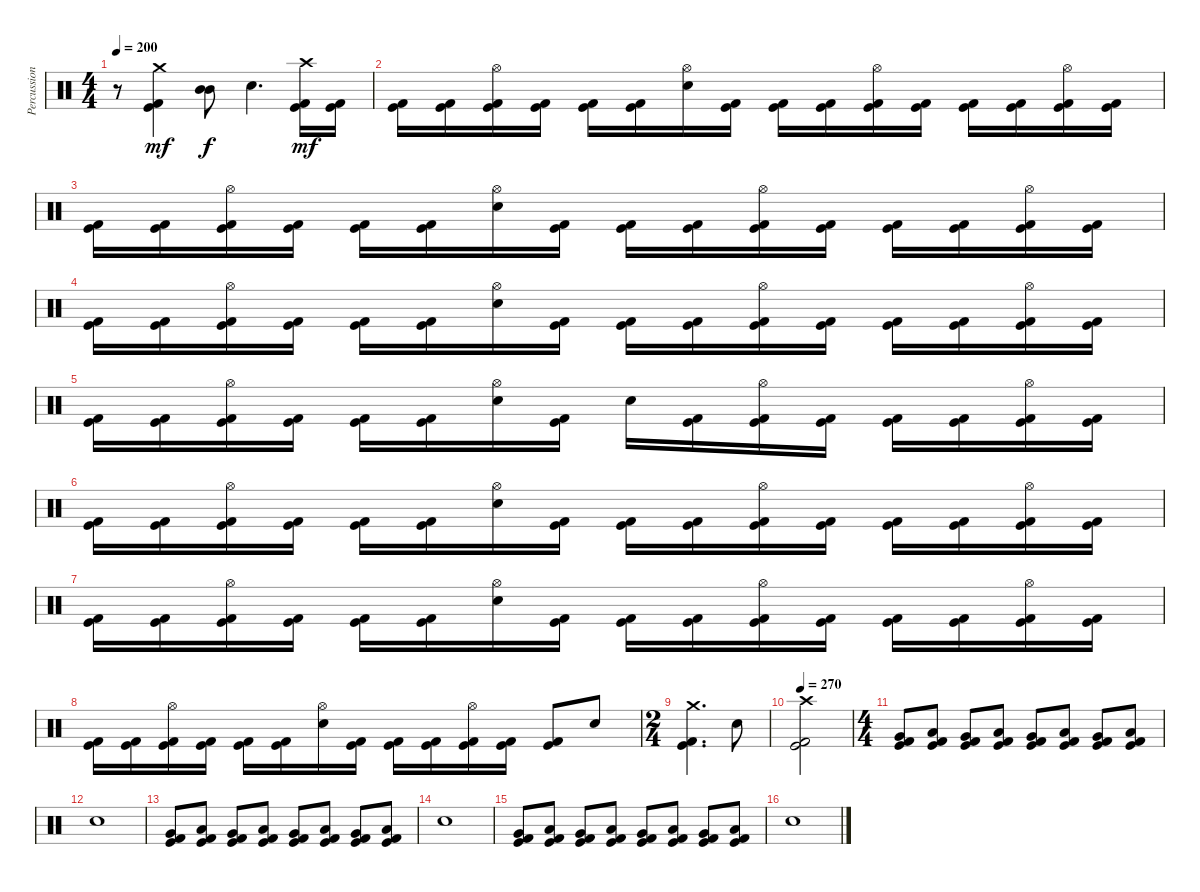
\track ("Percussions" "Percussion") {instrument percussion}
\staff {score}
\articulation defaults
\ts (4 4)
\tempo 200
\clef neutral
\ks c
r.8{dy mf} ("Crash medium (hit)" "Kick (hit)" "Kick (hit) 2").4 ("Mid Tom (hit)" "Mid Tom (hit)").8{dy f} "Electric Snare (hit)".4{d} ("Crash high (hit)" "Kick (hit)" "Kick (hit) 2").16{dy mf} ("Kick (hit)" "Kick (hit) 2").16 |
("Kick (hit)" "Kick (hit) 2").16 ("Kick (hit)" "Kick (hit) 2").16 ("Hi-Hat (open)" "Kick (hit)" "Kick (hit) 2").16 ("Kick (hit)" "Kick (hit) 2").16 ("Kick (hit)" "Kick (hit) 2").16 ("Kick (hit)" "Kick (hit) 2").16 ("Hi-Hat (open)" "Electric Snare (hit)").16 ("Kick (hit)" "Kick (hit) 2").16 ("Kick (hit)" "Kick (hit) 2").16 ("Kick (hit)" "Kick (hit) 2").16 ("Hi-Hat (open)" "Kick (hit)" "Kick (hit) 2").16 ("Kick (hit)" "Kick (hit) 2").16 ("Kick (hit)" "Kick (hit) 2").16 ("Kick (hit)" "Kick (hit) 2").16 ("Hi-Hat (open)" "Kick (hit)" "Kick (hit) 2").16 ("Kick (hit)" "Kick (hit) 2").16 |
("Kick (hit)" "Kick (hit) 2").16 ("Kick (hit)" "Kick (hit) 2").16 ("Hi-Hat (open)" "Kick (hit)" "Kick (hit) 2").16 ("Kick (hit)" "Kick (hit) 2").16 ("Kick (hit)" "Kick (hit) 2").16 ("Kick (hit)" "Kick (hit) 2").16 ("Hi-Hat (open)" "Electric Snare (hit)").16 ("Kick (hit)" "Kick (hit) 2").16 ("Kick (hit)" "Kick (hit) 2").16 ("Kick (hit)" "Kick (hit) 2").16 ("Hi-Hat (open)" "Kick (hit)" "Kick (hit) 2").16 ("Kick (hit)" "Kick (hit) 2").16 ("Kick (hit)" "Kick (hit) 2").16 ("Kick (hit)" "Kick (hit) 2").16 ("Hi-Hat (open)" "Kick (hit)" "Kick (hit) 2").16 ("Kick (hit)" "Kick (hit) 2").16 |
("Kick (hit)" "Kick (hit) 2").16 ("Kick (hit)" "Kick (hit) 2").16 ("Hi-Hat (open)" "Kick (hit)" "Kick (hit) 2").16 ("Kick (hit)" "Kick (hit) 2").16 ("Kick (hit)" "Kick (hit) 2").16 ("Kick (hit)" "Kick (hit) 2").16 ("Hi-Hat (open)" "Electric Snare (hit)").16 ("Kick (hit)" "Kick (hit) 2").16 ("Kick (hit)" "Kick (hit) 2").16 ("Kick (hit)" "Kick (hit) 2").16 ("Hi-Hat (open)" "Kick (hit)" "Kick (hit) 2").16 ("Kick (hit)" "Kick (hit) 2").16 ("Kick (hit)" "Kick (hit) 2").16 ("Kick (hit)" "Kick (hit) 2").16 ("Hi-Hat (open)" "Kick (hit)" "Kick (hit) 2").16 ("Kick (hit)" "Kick (hit) 2").16 |
("Kick (hit)" "Kick (hit) 2").16 ("Kick (hit)" "Kick (hit) 2").16 ("Hi-Hat (open)" "Kick (hit)" "Kick (hit) 2").16 ("Kick (hit)" "Kick (hit) 2").16 ("Kick (hit)" "Kick (hit) 2").16 ("Kick (hit)" "Kick (hit) 2").16 ("Hi-Hat (open)" "Electric Snare (hit)").16 ("Kick (hit)" "Kick (hit) 2").16 "Electric Snare (hit)".16 ("Kick (hit)" "Kick (hit) 2").16 ("Hi-Hat (open)" "Kick (hit)" "Kick (hit) 2").16 ("Kick (hit)" "Kick (hit) 2").16 ("Kick (hit)" "Kick (hit) 2").16 ("Kick (hit)" "Kick (hit) 2").16 ("Hi-Hat (open)" "Kick (hit)" "Kick (hit) 2").16 ("Kick (hit)" "Kick (hit) 2").16 |
("Kick (hit)" "Kick (hit) 2").16 ("Kick (hit)" "Kick (hit) 2").16 ("Hi-Hat (open)" "Kick (hit)" "Kick (hit) 2").16 ("Kick (hit)" "Kick (hit) 2").16 ("Kick (hit)" "Kick (hit) 2").16 ("Kick (hit)" "Kick (hit) 2").16 ("Hi-Hat (open)" "Electric Snare (hit)").16 ("Kick (hit)" "Kick (hit) 2").16 ("Kick (hit)" "Kick (hit) 2").16 ("Kick (hit)" "Kick (hit) 2").16 ("Hi-Hat (open)" "Kick (hit)" "Kick (hit) 2").16 ("Kick (hit)" "Kick (hit) 2").16 ("Kick (hit)" "Kick (hit) 2").16 ("Kick (hit)" "Kick (hit) 2").16 ("Hi-Hat (open)" "Kick (hit)" "Kick (hit) 2").16 ("Kick (hit)" "Kick (hit) 2").16 |
("Kick (hit)" "Kick (hit) 2").16 ("Kick (hit)" "Kick (hit) 2").16 ("Hi-Hat (open)" "Kick (hit)" "Kick (hit) 2").16 ("Kick (hit)" "Kick (hit) 2").16 ("Kick (hit)" "Kick (hit) 2").16 ("Kick (hit)" "Kick (hit) 2").16 ("Hi-Hat (open)" "Electric Snare (hit)").16 ("Kick (hit)" "Kick (hit) 2").16 ("Kick (hit)" "Kick (hit) 2").16 ("Kick (hit)" "Kick (hit) 2").16 ("Hi-Hat (open)" "Kick (hit)" "Kick (hit) 2").16 ("Kick (hit)" "Kick (hit) 2").16 ("Kick (hit)" "Kick (hit) 2").16 ("Kick (hit)" "Kick (hit) 2").16 ("Hi-Hat (open)" "Kick (hit)" "Kick (hit) 2").16 ("Kick (hit)" "Kick (hit) 2").16 |
("Kick (hit)" "Kick (hit) 2").16 ("Kick (hit)" "Kick (hit) 2").16 ("Hi-Hat (open)" "Kick (hit)" "Kick (hit) 2").16 ("Kick (hit)" "Kick (hit) 2").16 ("Kick (hit)" "Kick (hit) 2").16 ("Kick (hit)" "Kick (hit) 2").16 ("Hi-Hat (open)" "Electric Snare (hit)").16 ("Kick (hit)" "Kick (hit) 2").16 ("Kick (hit)" "Kick (hit) 2").16 ("Kick (hit)" "Kick (hit) 2").16 ("Hi-Hat (open)" "Kick (hit)" "Kick (hit) 2").16 ("Kick (hit)" "Kick (hit) 2").16 ("Kick (hit)" "Kick (hit) 2").8 "Electric Snare (hit)".8 |
\ts (2 4)
("Crash medium (hit)" "Kick (hit)" "Kick (hit) 2").4{d} "Electric Snare (hit)".8 |
\tempo 270
("Crash high (hit)" "Kick (hit)" "Kick (hit) 2").2 |
\ts (4 4)
("Very Low Tom (hit)" "Kick (hit)" "Kick (hit) 2").8 ("Low Floor Tom (hit)" "Kick (hit)" "Kick (hit) 2").8 ("Very Low Tom (hit)" "Kick (hit)" "Kick (hit) 2").8 ("Low Floor Tom (hit)" "Kick (hit)" "Kick (hit) 2").8 ("Very Low Tom (hit)" "Kick (hit)" "Kick (hit) 2").8 ("Low Floor Tom (hit)" "Kick (hit)" "Kick (hit) 2").8 ("Very Low Tom (hit)" "Kick (hit)" "Kick (hit) 2").8 ("Low Floor Tom (hit)" "Kick (hit)" "Kick (hit) 2").8 |
"Electric Snare (hit)".1 |
("Very Low Tom (hit)" "Kick (hit)" "Kick (hit) 2").8 ("Low Floor Tom (hit)" "Kick (hit)" "Kick (hit) 2").8 ("Very Low Tom (hit)" "Kick (hit)" "Kick (hit) 2").8 ("Low Floor Tom (hit)" "Kick (hit)" "Kick (hit) 2").8 ("Very Low Tom (hit)" "Kick (hit)" "Kick (hit) 2").8 ("Low Floor Tom (hit)" "Kick (hit)" "Kick (hit) 2").8 ("Very Low Tom (hit)" "Kick (hit)" "Kick (hit) 2").8 ("Low Floor Tom (hit)" "Kick (hit)" "Kick (hit) 2").8 |
"Electric Snare (hit)".1 |
("Very Low Tom (hit)" "Kick (hit)" "Kick (hit) 2").8 ("Low Floor Tom (hit)" "Kick (hit)" "Kick (hit) 2").8 ("Very Low Tom (hit)" "Kick (hit)" "Kick (hit) 2").8 ("Low Floor Tom (hit)" "Kick (hit)" "Kick (hit) 2").8 ("Very Low Tom (hit)" "Kick (hit)" "Kick (hit) 2").8 ("Low Floor Tom (hit)" "Kick (hit)" "Kick (hit) 2").8 ("Very Low Tom (hit)" "Kick (hit)" "Kick (hit) 2").8 ("Low Floor Tom (hit)" "Kick (hit)" "Kick (hit) 2").8 |
"Electric Snare (hit)".1
